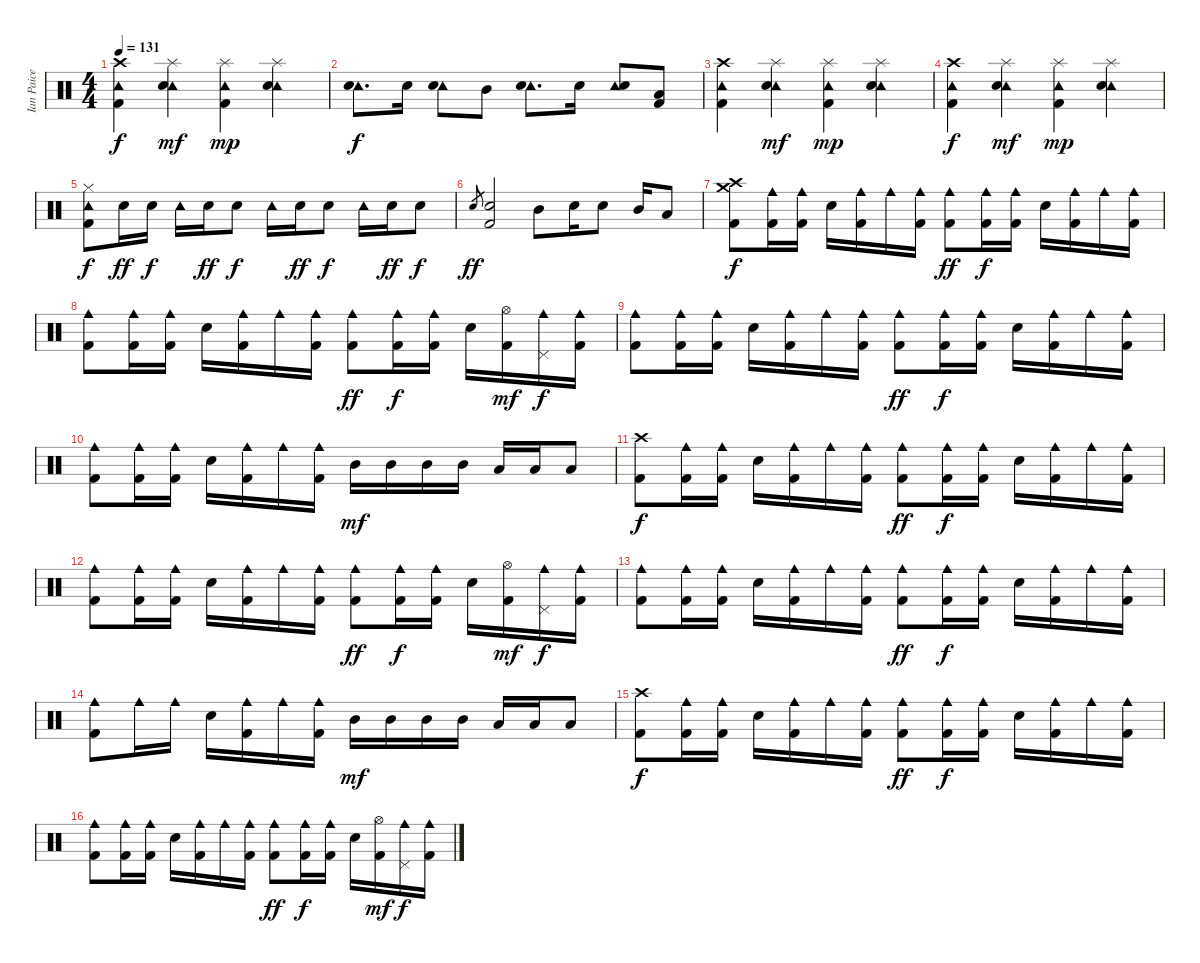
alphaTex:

\track ("Ian Paice" "Ian Paice") {instrument percussion}
\staff {score}
\articulation defaults
\ts (4 4)
\tempo 131
\clef neutral
\ks c
("Crash high (hit)" "Tambourine (hit)" "Kick (hit) 2").4{dy f} ("Splash (hit)" "Tambourine (hit)" "Snare (hit) 2").4{dy mf} ("Splash (hit)" "Tambourine (hit)" "Kick (hit) 2").4{dy mp} ("Splash (hit)" "Tambourine (hit)" "Snare (hit) 2").4 |
("Tambourine (hit)" "Snare (hit) 2").8{d dy f} "Snare (hit) 2".16 ("Tambourine (hit)" "Snare (hit) 2").8 "Mid Tom (hit)".8 ("Tambourine (hit)" "Snare (hit) 2").8{d} "Snare (hit) 2".16 ("Tambourine (hit)" "Snare (hit) 2").8 ("Low Tom (hit)" "Kick (hit) 2").8 |
("Crash high (hit)" "Tambourine (hit)" "Kick (hit) 2").4 ("Splash (hit)" "Tambourine (hit)" "Snare (hit) 2").4{dy mf} ("Splash (hit)" "Tambourine (hit)" "Kick (hit) 2").4{dy mp} ("Splash (hit)" "Tambourine (hit)" "Snare (hit) 2").4 |
("Crash high (hit)" "Tambourine (hit)" "Kick (hit) 2").4{dy f} ("Splash (hit)" "Tambourine (hit)" "Snare (hit) 2").4{dy mf} ("Splash (hit)" "Tambourine (hit)" "Kick (hit) 2").4{dy mp} ("Splash (hit)" "Tambourine (hit)" "Snare (hit) 2").4 |
("Hi-Hat (closed)" "Tambourine (hit)" "Kick (hit) 2").8{dy f} "Snare (hit) 2".16{dy ff} "Snare (hit) 2".16{dy f} "Tambourine (hit)".16 "Snare (hit) 2".16{dy ff} "Snare (hit) 2".8{dy f} "Tambourine (hit)".16 "Snare (hit) 2".16{dy ff} "Snare (hit) 2".8{dy f} "Tambourine (hit)".16 "Snare (hit) 2".16{dy ff} "Snare (hit) 2".8{dy f} |
"Snare (hit) 2".8{gr dy ff} ("Snare (hit) 2" "Kick (hit) 2").2 "Mid Tom (hit)".8 "Snare (hit) 2".16 "Snare (hit) 2".8 "Mid Tom (hit)".16 "Low Tom (hit)".8 |
("Crash high (hit)" "Crash medium (hit)" "Kick (hit) 2").8{dy f} ("Cowbell medium (hit)" "Kick (hit) 2").16 ("Cowbell medium (hit)" "Kick (hit) 2").16 "Snare (hit) 2".16 ("Cowbell medium (hit)" "Kick (hit) 2").16 "Cowbell medium (hit)".16 ("Cowbell medium (hit)" "Kick (hit) 2").16 ("Cowbell medium (hit)" "Kick (hit) 2").8{dy ff} ("Cowbell medium (hit)" "Kick (hit) 2").16{dy f} ("Cowbell medium (hit)" "Kick (hit) 2").16 "Snare (hit) 2".16 ("Cowbell medium (hit)" "Kick (hit) 2").16 "Cowbell medium (hit)".16 ("Cowbell medium (hit)" "Kick (hit) 2").16 |
("Cowbell medium (hit)" "Kick (hit) 2").8 ("Cowbell medium (hit)" "Kick (hit) 2").16 ("Cowbell medium (hit)" "Kick (hit) 2").16 "Snare (hit) 2".16 ("Cowbell medium (hit)" "Kick (hit) 2").16 "Cowbell medium (hit)".16 ("Cowbell medium (hit)" "Kick (hit) 2").16 ("Cowbell medium (hit)" "Kick (hit) 2").8{dy ff} ("Cowbell medium (hit)" "Kick (hit) 2").16{dy f} ("Cowbell medium (hit)" "Kick (hit) 2").16 "Snare (hit) 2".16 ("Hi-Hat (open)" "Kick (hit) 2").16{dy mf} ("Pedal Hi-Hat (hit)" "Cowbell medium (hit)").16{dy f} ("Cowbell medium (hit)" "Kick (hit) 2").16 |
("Cowbell medium (hit)" "Kick (hit) 2").8 ("Cowbell medium (hit)" "Kick (hit) 2").16 ("Cowbell medium (hit)" "Kick (hit) 2").16 "Snare (hit) 2".16 ("Cowbell medium (hit)" "Kick (hit) 2").16 "Cowbell medium (hit)".16 ("Cowbell medium (hit)" "Kick (hit) 2").16 ("Cowbell medium (hit)" "Kick (hit) 2").8{dy ff} ("Cowbell medium (hit)" "Kick (hit) 2").16{dy f} ("Cowbell medium (hit)" "Kick (hit) 2").16 "Snare (hit) 2".16 ("Cowbell medium (hit)" "Kick (hit) 2").16 "Cowbell medium (hit)".16 ("Cowbell medium (hit)" "Kick (hit) 2").16 |
("Cowbell medium (hit)" "Kick (hit) 2").8 ("Cowbell medium (hit)" "Kick (hit) 2").16 ("Cowbell medium (hit)" "Kick (hit) 2").16 "Snare (hit) 2".16 ("Cowbell medium (hit)" "Kick (hit) 2").16 "Cowbell medium (hit)".16 ("Cowbell medium (hit)" "Kick (hit) 2").16 "Mid Tom (hit)".16{dy mf} "Mid Tom (hit)".16 "Mid Tom (hit)".16 "Mid Tom (hit)".16 "Low Tom (hit)".16 "Low Tom (hit)".16 "Low Tom (hit)".8 |
("Crash high (hit)" "Kick (hit) 2").8{dy f} ("Cowbell medium (hit)" "Kick (hit) 2").16 ("Cowbell medium (hit)" "Kick (hit) 2").16 "Snare (hit) 2".16 ("Cowbell medium (hit)" "Kick (hit) 2").16 "Cowbell medium (hit)".16 ("Cowbell medium (hit)" "Kick (hit) 2").16 ("Cowbell medium (hit)" "Kick (hit) 2").8{dy ff} ("Cowbell medium (hit)" "Kick (hit) 2").16{dy f} ("Cowbell medium (hit)" "Kick (hit) 2").16 "Snare (hit) 2".16 ("Cowbell medium (hit)" "Kick (hit) 2").16 "Cowbell medium (hit)".16 ("Cowbell medium (hit)" "Kick (hit) 2").16 |
("Cowbell medium (hit)" "Kick (hit) 2").8 ("Cowbell medium (hit)" "Kick (hit) 2").16 ("Cowbell medium (hit)" "Kick (hit) 2").16 "Snare (hit) 2".16 ("Cowbell medium (hit)" "Kick (hit) 2").16 "Cowbell medium (hit)".16 ("Cowbell medium (hit)" "Kick (hit) 2").16 ("Cowbell medium (hit)" "Kick (hit) 2").8{dy ff} ("Cowbell medium (hit)" "Kick (hit) 2").16{dy f} ("Cowbell medium (hit)" "Kick (hit) 2").16 "Snare (hit) 2".16 ("Hi-Hat (open)" "Kick (hit) 2").16{dy mf} ("Pedal Hi-Hat (hit)" "Cowbell medium (hit)").16{dy f} ("Cowbell medium (hit)" "Kick (hit) 2").16 |
("Cowbell medium (hit)" "Kick (hit) 2").8 ("Cowbell medium (hit)" "Kick (hit) 2").16 ("Cowbell medium (hit)" "Kick (hit) 2").16 "Snare (hit) 2".16 ("Cowbell medium (hit)" "Kick (hit) 2").16 "Cowbell medium (hit)".16 ("Cowbell medium (hit)" "Kick (hit) 2").16 ("Cowbell medium (hit)" "Kick (hit) 2").8{dy ff} ("Cowbell medium (hit)" "Kick (hit) 2").16{dy f} ("Cowbell medium (hit)" "Kick (hit) 2").16 "Snare (hit) 2".16 ("Cowbell medium (hit)" "Kick (hit) 2").16 "Cowbell medium (hit)".16 ("Cowbell medium (hit)" "Kick (hit) 2").16 |
("Cowbell medium (hit)" "Kick (hit) 2").8 "Cowbell medium (hit)".16 "Cowbell medium (hit)".16 "Snare (hit) 2".16 ("Cowbell medium (hit)" "Kick (hit) 2").16 "Cowbell medium (hit)".16 ("Cowbell medium (hit)" "Kick (hit) 2").16 "Mid Tom (hit)".16{dy mf} "Mid Tom (hit)".16 "Mid Tom (hit)".16 "Mid Tom (hit)".16 "Low Tom (hit)".16 "Low Tom (hit)".16 "Low Tom (hit)".8 |
("Crash high (hit)" "Kick (hit) 2").8{dy f} ("Cowbell medium (hit)" "Kick (hit) 2").16 ("Cowbell medium (hit)" "Kick (hit) 2").16 "Snare (hit) 2".16 ("Cowbell medium (hit)" "Kick (hit) 2").16 "Cowbell medium (hit)".16 ("Cowbell medium (hit)" "Kick (hit) 2").16 ("Cowbell medium (hit)" "Kick (hit) 2").8{dy ff} ("Cowbell medium (hit)" "Kick (hit) 2").16{dy f} ("Cowbell medium (hit)" "Kick (hit) 2").16 "Snare (hit) 2".16 ("Cowbell medium (hit)" "Kick (hit) 2").16 "Cowbell medium (hit)".16 ("Cowbell medium (hit)" "Kick (hit) 2").16 |
("Cowbell medium (hit)" "Kick (hit) 2").8 ("Cowbell medium (hit)" "Kick (hit) 2").16 ("Cowbell medium (hit)" "Kick (hit) 2").16 "Snare (hit) 2".16 ("Cowbell medium (hit)" "Kick (hit) 2").16 "Cowbell medium (hit)".16 ("Cowbell medium (hit)" "Kick (hit) 2").16 ("Cowbell medium (hit)" "Kick (hit) 2").8{dy ff} ("Cowbell medium (hit)" "Kick (hit) 2").16{dy f} ("Cowbell medium (hit)" "Kick (hit) 2").16 "Snare (hit) 2".16 ("Hi-Hat (open)" "Kick (hit) 2").16{dy mf} ("Pedal Hi-Hat (hit)" "Cowbell medium (hit)").16{dy f} ("Cowbell medium (hit)" "Kick (hit) 2").16
